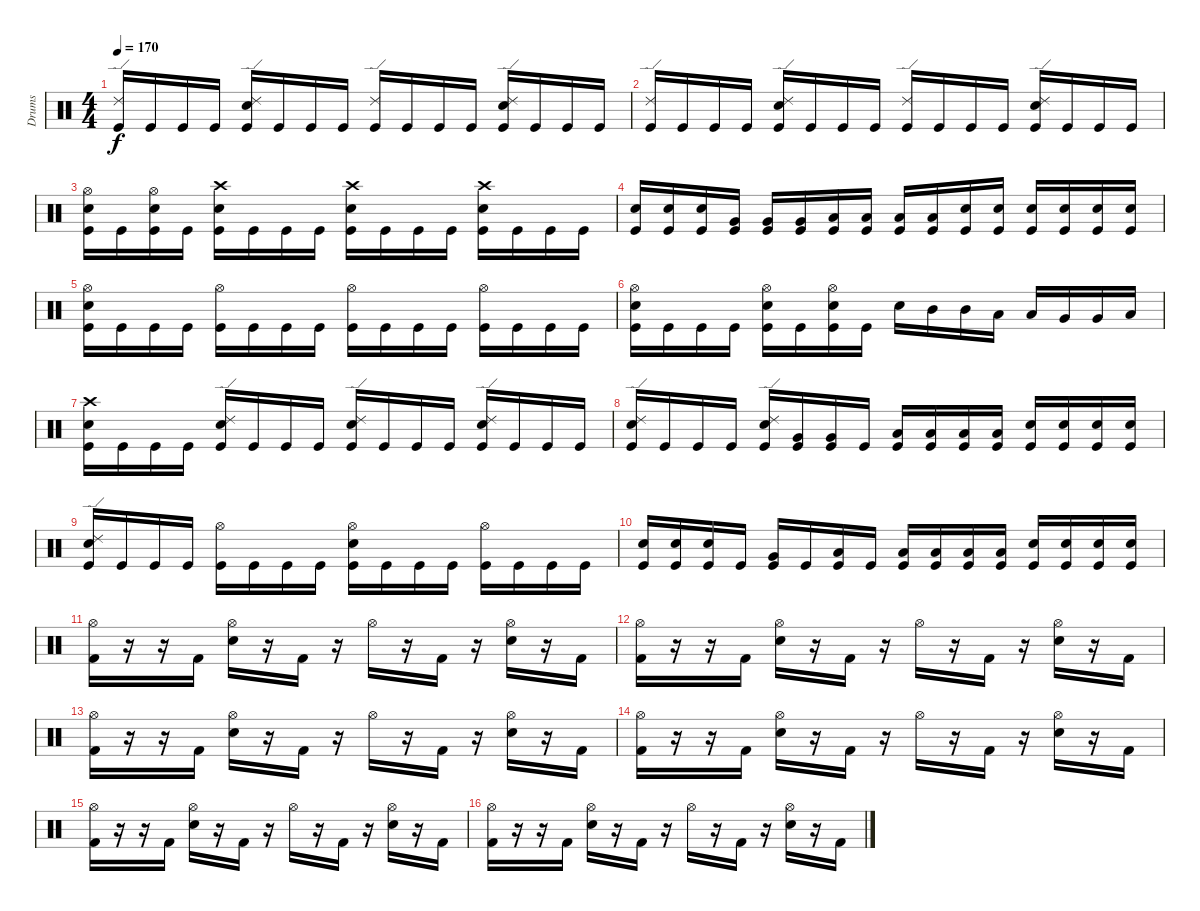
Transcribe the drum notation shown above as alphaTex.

\track ("Drums" "Drums") {instrument percussion}
\staff {score}
\articulation defaults
\ts (4 4)
\tempo 170
\clef neutral
\ks c
("Ride (edge) 2" "Kick (hit)").16{dy f} "Kick (hit)".16 "Kick (hit)".16 "Kick (hit)".16 ("Ride (edge) 2" "Electric Snare (hit)" "Kick (hit)").16 "Kick (hit)".16 "Kick (hit)".16 "Kick (hit)".16 ("Ride (edge) 2" "Kick (hit)").16 "Kick (hit)".16 "Kick (hit)".16 "Kick (hit)".16 ("Ride (edge) 2" "Electric Snare (hit)" "Kick (hit)").16 "Kick (hit)".16 "Kick (hit)".16 "Kick (hit)".16 |
("Ride (edge) 2" "Kick (hit)").16 "Kick (hit)".16 "Kick (hit)".16 "Kick (hit)".16 ("Ride (edge) 2" "Electric Snare (hit)" "Kick (hit)").16 "Kick (hit)".16 "Kick (hit)".16 "Kick (hit)".16 ("Ride (edge) 2" "Kick (hit)").16 "Kick (hit)".16 "Kick (hit)".16 "Kick (hit)".16 ("Ride (edge) 2" "Electric Snare (hit)" "Kick (hit)").16 "Kick (hit)".16 "Kick (hit)".16 "Kick (hit)".16 |
("Hi-Hat (open)" "Electric Snare (hit)" "Kick (hit)").16 "Kick (hit)".16 ("Hi-Hat (open)" "Electric Snare (hit)" "Kick (hit)").16 "Kick (hit)".16 ("Crash high (hit)" "Electric Snare (hit)" "Kick (hit)").16 "Kick (hit)".16 "Kick (hit)".16 "Kick (hit)".16 ("Crash high (hit)" "Electric Snare (hit)" "Kick (hit)").16 "Kick (hit)".16 "Kick (hit)".16 "Kick (hit)".16 ("Crash high (hit)" "Electric Snare (hit)" "Kick (hit)").16 "Kick (hit)".16 "Kick (hit)".16 "Kick (hit)".16 |
("Electric Snare (hit)" "Kick (hit)").16 ("Electric Snare (hit)" "Kick (hit)").16 ("Electric Snare (hit)" "Kick (hit)").16 ("Very Low Tom (hit)" "Kick (hit)").16 ("Very Low Tom (hit)" "Kick (hit)").16 ("Very Low Tom (hit)" "Kick (hit)").16 ("Low Tom (hit)" "Kick (hit)").16 ("Low Tom (hit)" "Kick (hit)").16 ("Low Tom (hit)" "Kick (hit)").16 ("Low Tom (hit)" "Kick (hit)").16 ("Electric Snare (hit)" "Kick (hit)").16 ("Electric Snare (hit)" "Kick (hit)").16 ("Electric Snare (hit)" "Kick (hit)").16 ("Electric Snare (hit)" "Kick (hit)").16 ("Electric Snare (hit)" "Kick (hit)").16 ("Electric Snare (hit)" "Kick (hit)").16 |
("Hi-Hat (open)" "Electric Snare (hit)" "Kick (hit)").16 "Kick (hit)".16 "Kick (hit)".16 "Kick (hit)".16 ("Hi-Hat (open)" "Kick (hit)").16 "Kick (hit)".16 "Kick (hit)".16 "Kick (hit)".16 ("Hi-Hat (open)" "Kick (hit)").16 "Kick (hit)".16 "Kick (hit)".16 "Kick (hit)".16 ("Hi-Hat (open)" "Kick (hit)").16 "Kick (hit)".16 "Kick (hit)".16 "Kick (hit)".16 |
("Hi-Hat (open)" "Electric Snare (hit)" "Kick (hit)").16 "Kick (hit)".16 "Kick (hit)".16 "Kick (hit)".16 ("Hi-Hat (open)" "Electric Snare (hit)" "Kick (hit)").16 "Kick (hit)".16 ("Hi-Hat (open)" "Electric Snare (hit)" "Kick (hit)").16 "Kick (hit)".16 "Electric Snare (hit)".16 "Mid Tom (hit)".16 "Mid Tom (hit)".16 "Low Tom (hit)".16 "Low Tom (hit)".16 "Very Low Tom (hit)".16 "Very Low Tom (hit)".16 "Low Floor Tom (hit)".16 |
("Crash high (hit)" "Electric Snare (hit)" "Kick (hit)").16 "Kick (hit)".16 "Kick (hit)".16 "Kick (hit)".16 ("Ride (edge) 2" "Electric Snare (hit)" "Kick (hit)").16 "Kick (hit)".16 "Kick (hit)".16 "Kick (hit)".16 ("Ride (edge) 2" "Electric Snare (hit)" "Kick (hit)").16 "Kick (hit)".16 "Kick (hit)".16 "Kick (hit)".16 ("Ride (edge) 2" "Electric Snare (hit)" "Kick (hit)").16 "Kick (hit)".16 "Kick (hit)".16 "Kick (hit)".16 |
("Ride (edge) 2" "Electric Snare (hit)" "Kick (hit)").16 "Kick (hit)".16 "Kick (hit)".16 "Kick (hit)".16 ("Ride (edge) 2" "Electric Snare (hit)" "Kick (hit)").16 ("Very Low Tom (hit)" "Kick (hit)").16 ("Very Low Tom (hit)" "Kick (hit)").16 "Kick (hit)".16 ("Low Tom (hit)" "Kick (hit)").16 ("Low Tom (hit)" "Kick (hit)").16 ("Low Tom (hit)" "Kick (hit)").16 ("Low Tom (hit)" "Kick (hit)").16 ("Electric Snare (hit)" "Kick (hit)").16 ("Electric Snare (hit)" "Kick (hit)").16 ("Electric Snare (hit)" "Kick (hit)").16 ("Electric Snare (hit)" "Kick (hit)").16 |
("Ride (edge) 2" "Electric Snare (hit)" "Kick (hit)").16 "Kick (hit)".16 "Kick (hit)".16 "Kick (hit)".16 ("Hi-Hat (open)" "Kick (hit)").16 "Kick (hit)".16 "Kick (hit)".16 "Kick (hit)".16 ("Hi-Hat (open)" "Electric Snare (hit)" "Kick (hit)").16 "Kick (hit)".16 "Kick (hit)".16 "Kick (hit)".16 ("Hi-Hat (open)" "Kick (hit)").16 "Kick (hit)".16 "Kick (hit)".16 "Kick (hit)".16 |
("Electric Snare (hit)" "Kick (hit)").16 ("Electric Snare (hit)" "Kick (hit)").16 ("Electric Snare (hit)" "Kick (hit)").16 "Kick (hit)".16 ("Very Low Tom (hit)" "Kick (hit)").16 "Kick (hit)".16 ("Low Tom (hit)" "Kick (hit)").16 "Kick (hit)".16 ("Low Tom (hit)" "Kick (hit)").16 ("Low Tom (hit)" "Kick (hit)").16 ("Low Tom (hit)" "Kick (hit)").16 ("Low Tom (hit)" "Kick (hit)").16 ("Electric Snare (hit)" "Kick (hit)").16 ("Electric Snare (hit)" "Kick (hit)").16 ("Electric Snare (hit)" "Kick (hit)").16 ("Electric Snare (hit)" "Kick (hit)").16 |
("Hi-Hat (open)" "Kick (hit) 2").16 r.16 r.16 "Kick (hit) 2".16 ("Hi-Hat (open)" "Electric Snare (hit)").16 r.16 "Kick (hit) 2".16 r.16 "Hi-Hat (open)".16 r.16 "Kick (hit) 2".16 r.16 ("Hi-Hat (open)" "Electric Snare (hit)").16 r.16 "Kick (hit) 2".16 |
("Hi-Hat (open)" "Kick (hit) 2").16 r.16 r.16 "Kick (hit) 2".16 ("Hi-Hat (open)" "Electric Snare (hit)").16 r.16 "Kick (hit) 2".16 r.16 "Hi-Hat (open)".16 r.16 "Kick (hit) 2".16 r.16 ("Hi-Hat (open)" "Electric Snare (hit)").16 r.16 "Kick (hit) 2".16 |
("Hi-Hat (open)" "Kick (hit) 2").16 r.16 r.16 "Kick (hit) 2".16 ("Hi-Hat (open)" "Electric Snare (hit)").16 r.16 "Kick (hit) 2".16 r.16 "Hi-Hat (open)".16 r.16 "Kick (hit) 2".16 r.16 ("Hi-Hat (open)" "Electric Snare (hit)").16 r.16 "Kick (hit) 2".16 |
("Hi-Hat (open)" "Kick (hit) 2").16 r.16 r.16 "Kick (hit) 2".16 ("Hi-Hat (open)" "Electric Snare (hit)").16 r.16 "Kick (hit) 2".16 r.16 "Hi-Hat (open)".16 r.16 "Kick (hit) 2".16 r.16 ("Hi-Hat (open)" "Electric Snare (hit)").16 r.16 "Kick (hit) 2".16 |
("Hi-Hat (open)" "Kick (hit) 2").16 r.16 r.16 "Kick (hit) 2".16 ("Hi-Hat (open)" "Electric Snare (hit)").16 r.16 "Kick (hit) 2".16 r.16 "Hi-Hat (open)".16 r.16 "Kick (hit) 2".16 r.16 ("Hi-Hat (open)" "Electric Snare (hit)").16 r.16 "Kick (hit) 2".16 |
("Hi-Hat (open)" "Kick (hit) 2").16 r.16 r.16 "Kick (hit) 2".16 ("Hi-Hat (open)" "Electric Snare (hit)").16 r.16 "Kick (hit) 2".16 r.16 "Hi-Hat (open)".16 r.16 "Kick (hit) 2".16 r.16 ("Hi-Hat (open)" "Electric Snare (hit)").16 r.16 "Kick (hit) 2".16
